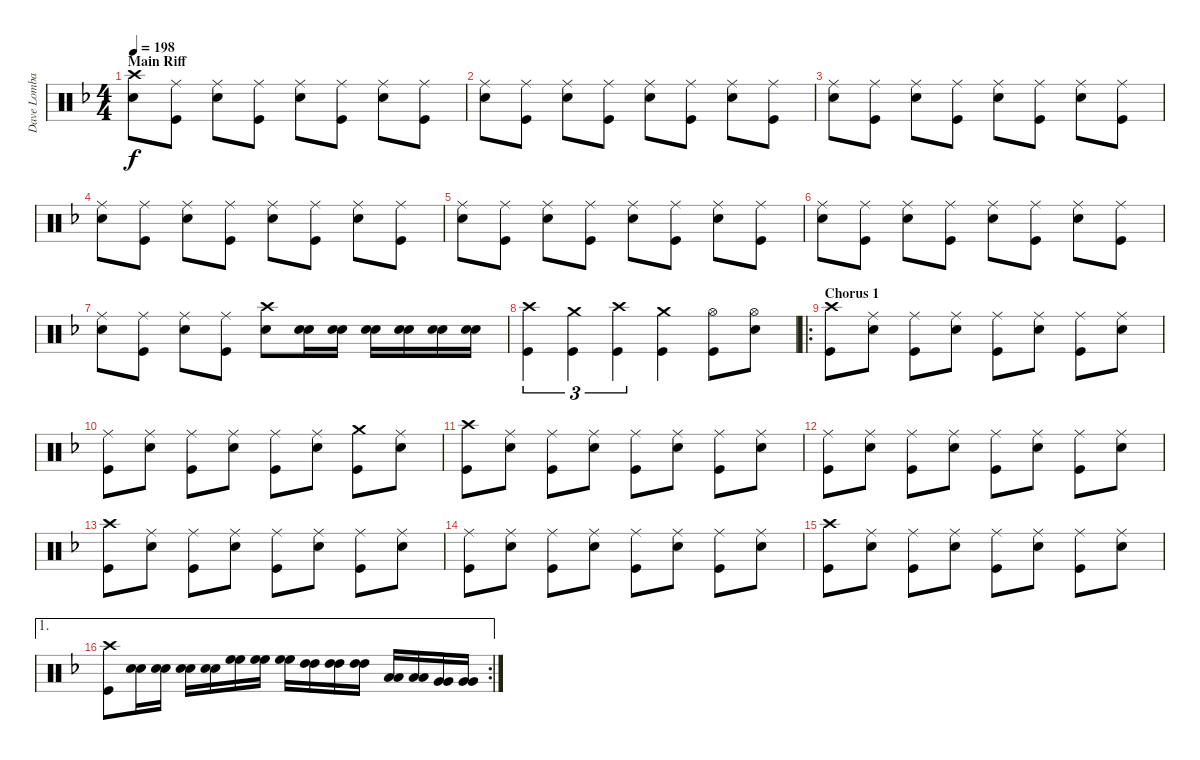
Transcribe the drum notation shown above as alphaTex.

\track ("Dave Lombardo - Drums" "Dave Lomba") {instrument percussion}
\staff {score}
\articulation defaults
\ts (4 4)
\section ("" "Main Riff")
\tempo 198
\clef neutral
\ks f
("Crash high (hit)" "Snare (hit) 2").8{dy f} ("Ride (middle)" "Kick (hit)").8 ("Ride (middle)" "Snare (hit) 2").8 ("Ride (middle)" "Kick (hit)").8 ("Ride (middle)" "Snare (hit) 2").8 ("Ride (middle)" "Kick (hit)").8 ("Ride (middle)" "Snare (hit) 2").8 ("Ride (middle)" "Kick (hit)").8 |
("Ride (middle)" "Snare (hit) 2").8 ("Ride (middle)" "Kick (hit)").8 ("Ride (middle)" "Snare (hit) 2").8 ("Ride (middle)" "Kick (hit)").8 ("Ride (middle)" "Snare (hit) 2").8 ("Ride (middle)" "Kick (hit)").8 ("Ride (middle)" "Snare (hit) 2").8 ("Ride (middle)" "Kick (hit)").8 |
("Ride (middle)" "Snare (hit) 2").8 ("Ride (middle)" "Kick (hit)").8 ("Ride (middle)" "Snare (hit) 2").8 ("Ride (middle)" "Kick (hit)").8 ("Ride (middle)" "Snare (hit) 2").8 ("Ride (middle)" "Kick (hit)").8 ("Ride (middle)" "Snare (hit) 2").8 ("Ride (middle)" "Kick (hit)").8 |
("Ride (middle)" "Snare (hit) 2").8 ("Ride (middle)" "Kick (hit)").8 ("Ride (middle)" "Snare (hit) 2").8 ("Ride (middle)" "Kick (hit)").8 ("Ride (middle)" "Snare (hit) 2").8 ("Ride (middle)" "Kick (hit)").8 ("Ride (middle)" "Snare (hit) 2").8 ("Ride (middle)" "Kick (hit)").8 |
("Ride (middle)" "Snare (hit) 2").8 ("Ride (middle)" "Kick (hit)").8 ("Ride (middle)" "Snare (hit) 2").8 ("Ride (middle)" "Kick (hit)").8 ("Ride (middle)" "Snare (hit) 2").8 ("Ride (middle)" "Kick (hit)").8 ("Ride (middle)" "Snare (hit) 2").8 ("Ride (middle)" "Kick (hit)").8 |
("Ride (middle)" "Snare (hit) 2").8 ("Ride (middle)" "Kick (hit)").8 ("Ride (middle)" "Snare (hit) 2").8 ("Ride (middle)" "Kick (hit)").8 ("Ride (middle)" "Snare (hit) 2").8 ("Ride (middle)" "Kick (hit)").8 ("Ride (middle)" "Snare (hit) 2").8 ("Ride (middle)" "Kick (hit)").8 |
("Ride (middle)" "Snare (hit) 2").8 ("Ride (middle)" "Kick (hit)").8 ("Ride (middle)" "Snare (hit) 2").8 ("Ride (middle)" "Kick (hit)").8 ("Crash high (hit)" "Snare (hit) 2").8 ("Snare (hit) 2" "Snare (hit) 2").16 ("Snare (hit) 2" "Snare (hit) 2").16 ("Snare (hit) 2" "Snare (hit) 2").16 ("Snare (hit) 2" "Snare (hit) 2").16 ("Snare (hit) 2" "Snare (hit) 2").16 ("Snare (hit) 2" "Snare (hit) 2").16 |
("Crash high (hit)" "Kick (hit)").4{tu (3 2)} ("Crash medium (hit)" "Kick (hit)").4{tu (3 2)} ("Crash high (hit)" "Kick (hit)").4{tu (3 2)} ("Crash medium (hit)" "Kick (hit)").4 ("Hi-Hat (open)" "Kick (hit)").8 ("Hi-Hat (open)" "Snare (hit) 2").8 |
\ro
\section ("" "Chorus 1")
("Crash high (hit)" "Kick (hit)").8 ("Ride (middle)" "Snare (hit) 2").8 ("Ride (middle)" "Kick (hit)").8 ("Ride (middle)" "Snare (hit) 2").8 ("Ride (middle)" "Kick (hit)").8 ("Ride (middle)" "Snare (hit) 2").8 ("Ride (middle)" "Kick (hit)").8 ("Ride (middle)" "Snare (hit) 2").8 |
("Ride (middle)" "Kick (hit)").8 ("Ride (middle)" "Snare (hit) 2").8 ("Ride (middle)" "Kick (hit)").8 ("Ride (middle)" "Snare (hit) 2").8 ("Ride (middle)" "Kick (hit)").8 ("Ride (middle)" "Snare (hit) 2").8 ("Crash medium (hit)" "Kick (hit)").8 ("Ride (middle)" "Snare (hit) 2").8 |
("Crash high (hit)" "Kick (hit)").8 ("Ride (middle)" "Snare (hit) 2").8 ("Ride (middle)" "Kick (hit)").8 ("Ride (middle)" "Snare (hit) 2").8 ("Ride (middle)" "Kick (hit)").8 ("Ride (middle)" "Snare (hit) 2").8 ("Ride (middle)" "Kick (hit)").8 ("Ride (middle)" "Snare (hit) 2").8 |
("Ride (middle)" "Kick (hit)").8 ("Ride (middle)" "Snare (hit) 2").8 ("Ride (middle)" "Kick (hit)").8 ("Ride (middle)" "Snare (hit) 2").8 ("Ride (middle)" "Kick (hit)").8 ("Ride (middle)" "Snare (hit) 2").8 ("Ride (middle)" "Kick (hit)").8 ("Ride (middle)" "Snare (hit) 2").8 |
("Crash high (hit)" "Kick (hit)").8 ("Ride (middle)" "Snare (hit) 2").8 ("Ride (middle)" "Kick (hit)").8 ("Ride (middle)" "Snare (hit) 2").8 ("Ride (middle)" "Kick (hit)").8 ("Ride (middle)" "Snare (hit) 2").8 ("Ride (middle)" "Kick (hit)").8 ("Ride (middle)" "Snare (hit) 2").8 |
("Ride (middle)" "Kick (hit)").8 ("Ride (middle)" "Snare (hit) 2").8 ("Ride (middle)" "Kick (hit)").8 ("Ride (middle)" "Snare (hit) 2").8 ("Ride (middle)" "Kick (hit)").8 ("Ride (middle)" "Snare (hit) 2").8 ("Ride (middle)" "Kick (hit)").8 ("Ride (middle)" "Snare (hit) 2").8 |
("Crash high (hit)" "Kick (hit)").8 ("Ride (middle)" "Snare (hit) 2").8 ("Ride (middle)" "Kick (hit)").8 ("Ride (middle)" "Snare (hit) 2").8 ("Ride (middle)" "Kick (hit)").8 ("Ride (middle)" "Snare (hit) 2").8 ("Ride (middle)" "Kick (hit)").8 ("Ride (middle)" "Snare (hit) 2").8 |
\ae 1
\rc 2
("Crash high (hit)" "Kick (hit)").8 ("Snare (hit) 2" "Snare (hit) 2").16 ("Snare (hit) 2" "Snare (hit) 2").16 ("Snare (hit) 2" "Snare (hit) 2").16 ("Snare (hit) 2" "Snare (hit) 2").16 ("High Floor Tom (hit)" "High Floor Tom (hit)").16 ("High Floor Tom (hit)" "High Floor Tom (hit)").16 ("High Floor Tom (hit)" "High Floor Tom (hit)").16 ("High Tom (hit)" "High Tom (hit)").16 ("High Tom (hit)" "High Tom (hit)").16 ("High Tom (hit)" "High Tom (hit)").16 ("Low Tom (hit)" "Low Tom (hit)").16 ("Low Tom (hit)" "Low Tom (hit)").16 ("Very Low Tom (hit)" "Very Low Tom (hit)").16 ("Very Low Tom (hit)" "Very Low Tom (hit)").16
